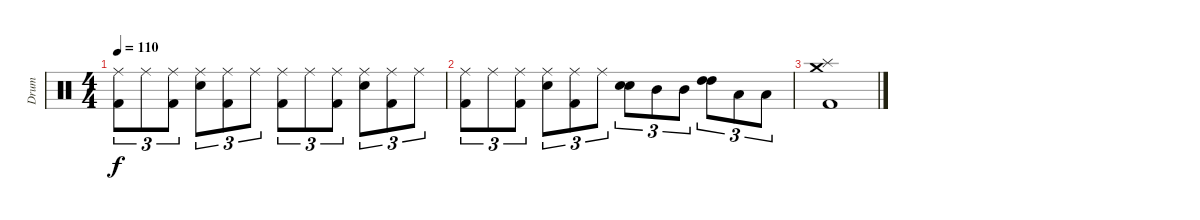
\track ("Drum" "Drum") {instrument percussion}
\staff {score}
\articulation defaults
\ts (4 4)
\tempo 110
\clef neutral
\ks c
("Ride (middle)" "Kick (hit) 2").8{tu (3 2) dy f} "Ride (middle)".8{tu (3 2)} ("Ride (middle)" "Kick (hit) 2").8{tu (3 2)} ("Ride (middle)" "Electric Snare (hit)").8{tu (3 2)} ("Ride (middle)" "Kick (hit) 2").8{tu (3 2)} "Ride (middle)".8{tu (3 2)} ("Ride (middle)" "Kick (hit) 2").8{tu (3 2)} "Ride (middle)".8{tu (3 2)} ("Ride (middle)" "Kick (hit) 2").8{tu (3 2)} ("Ride (middle)" "Electric Snare (hit)").8{tu (3 2)} ("Ride (middle)" "Kick (hit) 2").8{tu (3 2)} "Ride (middle)".8{tu (3 2)} |
("Ride (middle)" "Kick (hit) 2").8{tu (3 2)} "Ride (middle)".8{tu (3 2)} ("Ride (middle)" "Kick (hit) 2").8{tu (3 2)} ("Ride (middle)" "Electric Snare (hit)").8{tu (3 2)} ("Ride (middle)" "Kick (hit) 2").8{tu (3 2)} "Ride (middle)".8{tu (3 2)} ("Electric Snare (hit)" "Electric Snare (hit)").8{tu (3 2) bd 120} "Mid Tom (hit)".8{tu (3 2)} "Mid Tom (hit)".8{tu (3 2)} ("High Tom (hit)" "High Tom (hit)").8{tu (3 2) bd 120} "Low Tom (hit)".8{tu (3 2)} "Low Tom (hit)".8{tu (3 2)} |
("Crash medium (hit)" "Splash (hit)" "Kick (hit) 2").1
